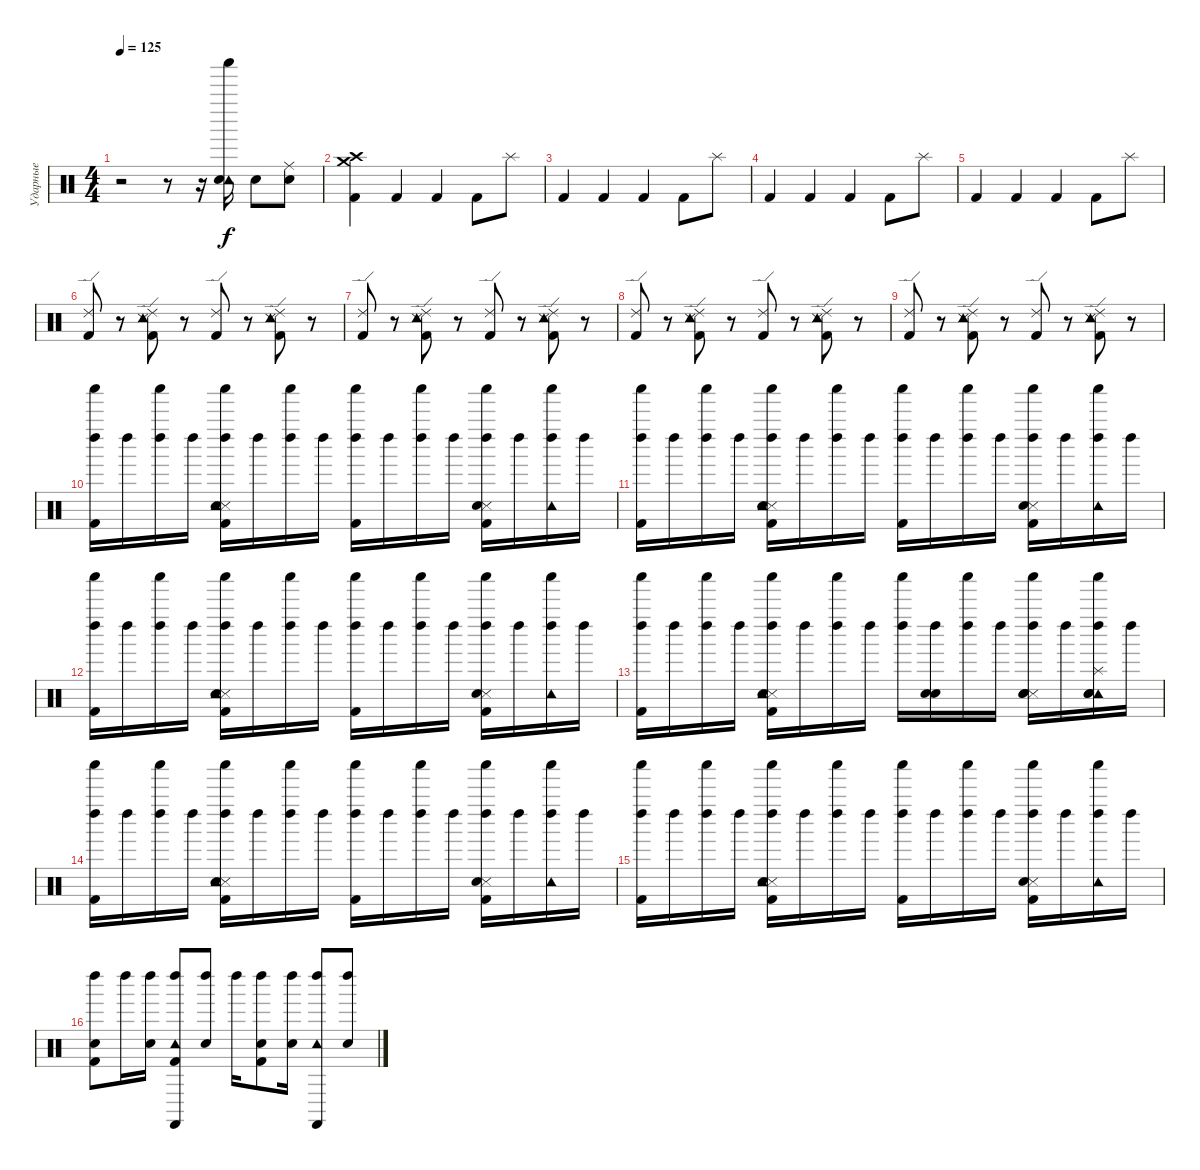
\track ("Ударные" "Ударные") {instrument percussion}
\staff {score}
\articulation defaults
\ts (4 4)
\tempo 125
\clef neutral
\ks c
r.2{dy f} r.8 r.16 ("Shaker (hit)" "Tambourine (hit)" "Snare (hit) 2").16 "Hand Clap (hit)".8 ("Ride (middle)" "Hand Clap (hit)").8 |
("Crash high (hit)" "Crash medium (hit)" "Kick (hit) 2").4 "Kick (hit) 2".4 "Kick (hit) 2".4 "Kick (hit) 2".8 "Splash (hit)".8 |
"Kick (hit) 2".4 "Kick (hit) 2".4 "Kick (hit) 2".4 "Kick (hit) 2".8 "Splash (hit)".8 |
"Kick (hit) 2".4 "Kick (hit) 2".4 "Kick (hit) 2".4 "Kick (hit) 2".8 "Splash (hit)".8 |
"Kick (hit) 2".4 "Kick (hit) 2".4 "Kick (hit) 2".4 "Kick (hit) 2".8 "Splash (hit)".8 |
("Kick (hit) 2" "Ride (edge) 2").8 r.8 ("Snare (side stick) 3" "Tambourine (hit)" "Kick (hit) 2" "Ride (edge) 2").8 r.8 ("Kick (hit) 2" "Ride (edge) 2").8 r.8 ("Snare (side stick) 3" "Tambourine (hit)" "Kick (hit) 2" "Ride (edge) 2").8 r.8 |
("Kick (hit) 2" "Ride (edge) 2").8 r.8 ("Snare (side stick) 3" "Tambourine (hit)" "Kick (hit) 2" "Ride (edge) 2").8 r.8 ("Kick (hit) 2" "Ride (edge) 2").8 r.8 ("Snare (side stick) 3" "Tambourine (hit)" "Kick (hit) 2" "Ride (edge) 2").8 r.8 |
("Kick (hit) 2" "Ride (edge) 2").8 r.8 ("Snare (side stick) 3" "Tambourine (hit)" "Kick (hit) 2" "Ride (edge) 2").8 r.8 ("Kick (hit) 2" "Ride (edge) 2").8 r.8 ("Snare (side stick) 3" "Tambourine (hit)" "Kick (hit) 2" "Ride (edge) 2").8 r.8 |
("Kick (hit) 2" "Ride (edge) 2").8 r.8 ("Snare (side stick) 3" "Tambourine (hit)" "Kick (hit) 2" "Ride (edge) 2").8 r.8 ("Kick (hit) 2" "Ride (edge) 2").8 r.8 ("Snare (side stick) 3" "Tambourine (hit)" "Kick (hit) 2" "Ride (edge) 2").8 r.8 |
("Shaker (hit)" "Kick (hit) 2" "Left Maraca (hit)").16 "Left Maraca (hit)".16 ("Shaker (hit)" "Left Maraca (hit)").16 "Left Maraca (hit)".16 ("Shaker (hit)" "Snare (side stick) 3" "Hand Clap (hit)" "Tambourine (hit)" "Kick (hit) 2" "Left Maraca (hit)").16 "Left Maraca (hit)".16 ("Shaker (hit)" "Left Maraca (hit)").16 "Left Maraca (hit)".16 ("Shaker (hit)" "Kick (hit) 2" "Left Maraca (hit)").16 "Left Maraca (hit)".16 ("Shaker (hit)" "Left Maraca (hit)").16 "Left Maraca (hit)".16 ("Shaker (hit)" "Snare (side stick) 3" "Kick (hit) 2" "Hand Clap (hit)" "Left Maraca (hit)").16 "Left Maraca (hit)".16 ("Shaker (hit)" "Tambourine (hit)" "Left Maraca (hit)").16 "Left Maraca (hit)".16 |
("Shaker (hit)" "Kick (hit) 2" "Left Maraca (hit)").16 "Left Maraca (hit)".16 ("Shaker (hit)" "Left Maraca (hit)").16 "Left Maraca (hit)".16 ("Shaker (hit)" "Snare (side stick) 3" "Hand Clap (hit)" "Tambourine (hit)" "Kick (hit) 2" "Left Maraca (hit)").16 "Left Maraca (hit)".16 ("Shaker (hit)" "Left Maraca (hit)").16 "Left Maraca (hit)".16 ("Shaker (hit)" "Kick (hit) 2" "Left Maraca (hit)").16 "Left Maraca (hit)".16 ("Shaker (hit)" "Left Maraca (hit)").16 "Left Maraca (hit)".16 ("Shaker (hit)" "Snare (side stick) 3" "Kick (hit) 2" "Hand Clap (hit)" "Left Maraca (hit)").16 "Left Maraca (hit)".16 ("Shaker (hit)" "Tambourine (hit)" "Left Maraca (hit)").16 "Left Maraca (hit)".16 |
("Shaker (hit)" "Kick (hit) 2" "Left Maraca (hit)").16 "Left Maraca (hit)".16 ("Shaker (hit)" "Left Maraca (hit)").16 "Left Maraca (hit)".16 ("Shaker (hit)" "Snare (side stick) 3" "Hand Clap (hit)" "Tambourine (hit)" "Kick (hit) 2" "Left Maraca (hit)").16 "Left Maraca (hit)".16 ("Shaker (hit)" "Left Maraca (hit)").16 "Left Maraca (hit)".16 ("Shaker (hit)" "Kick (hit) 2" "Left Maraca (hit)").16 "Left Maraca (hit)".16 ("Shaker (hit)" "Left Maraca (hit)").16 "Left Maraca (hit)".16 ("Shaker (hit)" "Snare (side stick) 3" "Kick (hit) 2" "Hand Clap (hit)" "Left Maraca (hit)").16 "Left Maraca (hit)".16 ("Shaker (hit)" "Tambourine (hit)" "Left Maraca (hit)").16 "Left Maraca (hit)".16 |
("Shaker (hit)" "Kick (hit) 2" "Left Maraca (hit)").16 "Left Maraca (hit)".16 ("Shaker (hit)" "Left Maraca (hit)").16 "Left Maraca (hit)".16 ("Shaker (hit)" "Snare (side stick) 3" "Hand Clap (hit)" "Tambourine (hit)" "Kick (hit) 2" "Left Maraca (hit)").16 "Left Maraca (hit)".16 ("Shaker (hit)" "Left Maraca (hit)").16 "Left Maraca (hit)".16 ("Shaker (hit)" "Left Maraca (hit)").16 ("Electric Snare (hit)" "Snare (hit) 2" "Left Maraca (hit)").16 ("Shaker (hit)" "Left Maraca (hit)").16 "Left Maraca (hit)".16 ("Shaker (hit)" "Snare (side stick) 3" "Electric Snare (hit)" "Snare (hit) 2" "Left Maraca (hit)").16 "Left Maraca (hit)".16 ("Shaker (hit)" "Tambourine (hit)" "Electric Snare (hit)" "Snare (hit) 2" "Splash (hit)" "Left Maraca (hit)").16 "Left Maraca (hit)".16 |
("Shaker (hit)" "Kick (hit) 2" "Left Maraca (hit)").16 "Left Maraca (hit)".16 ("Shaker (hit)" "Left Maraca (hit)").16 "Left Maraca (hit)".16 ("Shaker (hit)" "Snare (side stick) 3" "Hand Clap (hit)" "Tambourine (hit)" "Kick (hit) 2" "Left Maraca (hit)").16 "Left Maraca (hit)".16 ("Shaker (hit)" "Left Maraca (hit)").16 "Left Maraca (hit)".16 ("Shaker (hit)" "Kick (hit) 2" "Left Maraca (hit)").16 "Left Maraca (hit)".16 ("Shaker (hit)" "Left Maraca (hit)").16 "Left Maraca (hit)".16 ("Shaker (hit)" "Snare (side stick) 3" "Kick (hit) 2" "Hand Clap (hit)" "Left Maraca (hit)").16 "Left Maraca (hit)".16 ("Shaker (hit)" "Tambourine (hit)" "Left Maraca (hit)").16 "Left Maraca (hit)".16 |
("Shaker (hit)" "Kick (hit) 2" "Left Maraca (hit)").16 "Left Maraca (hit)".16 ("Shaker (hit)" "Left Maraca (hit)").16 "Left Maraca (hit)".16 ("Shaker (hit)" "Snare (side stick) 3" "Hand Clap (hit)" "Tambourine (hit)" "Kick (hit) 2" "Left Maraca (hit)").16 "Left Maraca (hit)".16 ("Shaker (hit)" "Left Maraca (hit)").16 "Left Maraca (hit)".16 ("Shaker (hit)" "Kick (hit) 2" "Left Maraca (hit)").16 "Left Maraca (hit)".16 ("Shaker (hit)" "Left Maraca (hit)").16 "Left Maraca (hit)".16 ("Shaker (hit)" "Snare (side stick) 3" "Kick (hit) 2" "Hand Clap (hit)" "Left Maraca (hit)").16 "Left Maraca (hit)".16 ("Shaker (hit)" "Tambourine (hit)" "Left Maraca (hit)").16 "Left Maraca (hit)".16 |
("Snare (hit) 2" "Left Maraca (hit)" "Kick (hit) 2").8 "Left Maraca (hit)".16 ("Snare (hit) 2" "Left Maraca (hit)").16 ("Castanets (hit)" "Tambourine (hit)" "Left Maraca (hit)" "Kick (hit) 2").8 ("Snare (hit) 2" "Left Maraca (hit)").8 "Left Maraca (hit)".16 ("Snare (hit) 2" "Left Maraca (hit)" "Kick (hit) 2").8 ("Snare (hit) 2" "Left Maraca (hit)").16 ("Castanets (hit)" "Tambourine (hit)" "Left Maraca (hit)").8 ("Snare (hit) 2" "Left Maraca (hit)").8
